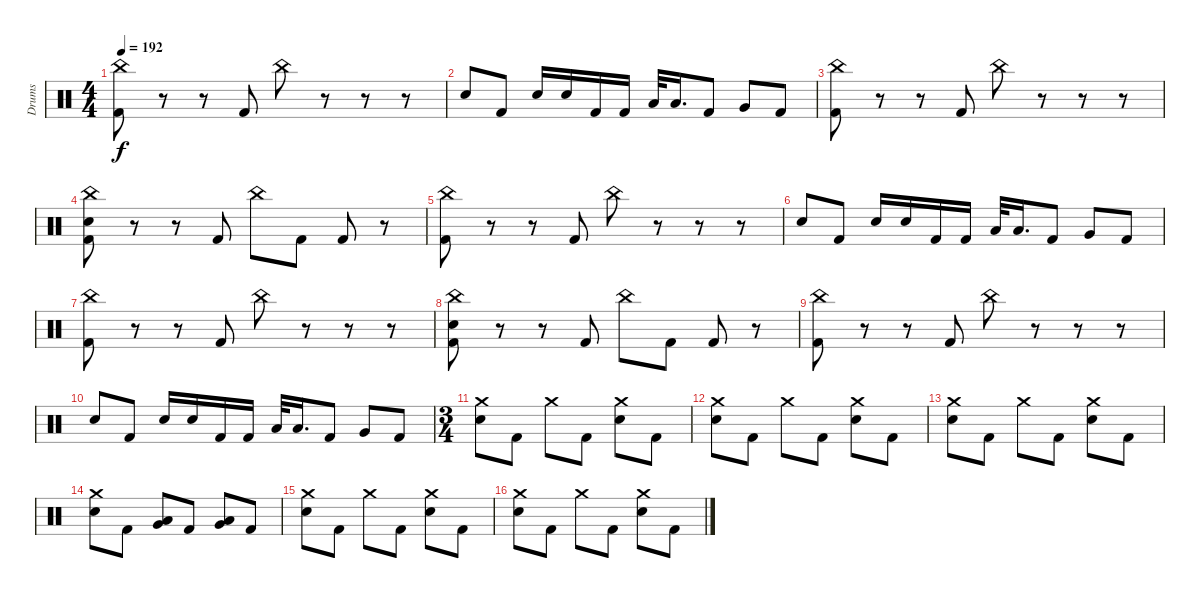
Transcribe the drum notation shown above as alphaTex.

\track ("Drums" "Drums") {instrument percussion}
\staff {score}
\articulation defaults
\ts (4 4)
\tempo 192
\clef neutral
\ks c
("China (hit)" "Kick (hit) 2").8{dy f} r.8 r.8 "Kick (hit) 2".8 "China (hit)".8 r.8 r.8 r.8 |
"Electric Snare (hit)".8 "Kick (hit) 2".8 "Electric Snare (hit)".16 "Electric Snare (hit)".16 "Kick (hit) 2".16 "Kick (hit) 2".16 "Low Tom (hit)".32 "Low Tom (hit)".16{d} "Kick (hit) 2".8 "Very Low Tom (hit)".8 "Kick (hit) 2".8 |
("China (hit)" "Kick (hit) 2").8 r.8 r.8 "Kick (hit) 2".8 "China (hit)".8 r.8 r.8 r.8 |
("China (hit)" "Electric Snare (hit)" "Kick (hit) 2").8 r.8 r.8 "Kick (hit) 2".8 "China (hit)".8 "Kick (hit) 2".8 "Kick (hit) 2".8 r.8 |
("China (hit)" "Kick (hit) 2").8 r.8 r.8 "Kick (hit) 2".8 "China (hit)".8 r.8 r.8 r.8 |
"Electric Snare (hit)".8 "Kick (hit) 2".8 "Electric Snare (hit)".16 "Electric Snare (hit)".16 "Kick (hit) 2".16 "Kick (hit) 2".16 "Low Tom (hit)".32 "Low Tom (hit)".16{d} "Kick (hit) 2".8 "Very Low Tom (hit)".8 "Kick (hit) 2".8 |
("China (hit)" "Kick (hit) 2").8 r.8 r.8 "Kick (hit) 2".8 "China (hit)".8 r.8 r.8 r.8 |
("China (hit)" "Electric Snare (hit)" "Kick (hit) 2").8 r.8 r.8 "Kick (hit) 2".8 "China (hit)".8 "Kick (hit) 2".8 "Kick (hit) 2".8 r.8 |
("China (hit)" "Kick (hit) 2").8 r.8 r.8 "Kick (hit) 2".8 "China (hit)".8 r.8 r.8 r.8 |
"Electric Snare (hit)".8 "Kick (hit) 2".8 "Electric Snare (hit)".16 "Electric Snare (hit)".16 "Kick (hit) 2".16 "Kick (hit) 2".16 "Low Tom (hit)".32 "Low Tom (hit)".16{d} "Kick (hit) 2".8 "Very Low Tom (hit)".8 "Kick (hit) 2".8 |
\ts (3 4)
("Crash medium (hit)" "Electric Snare (hit)").8 "Kick (hit) 2".8 "Crash medium (hit)".8 "Kick (hit) 2".8 ("Crash medium (hit)" "Electric Snare (hit)").8 "Kick (hit) 2".8 |
("Crash medium (hit)" "Electric Snare (hit)").8 "Kick (hit) 2".8 "Crash medium (hit)".8 "Kick (hit) 2".8 ("Crash medium (hit)" "Electric Snare (hit)").8 "Kick (hit) 2".8 |
("Crash medium (hit)" "Electric Snare (hit)").8 "Kick (hit) 2".8 "Crash medium (hit)".8 "Kick (hit) 2".8 ("Crash medium (hit)" "Electric Snare (hit)").8 "Kick (hit) 2".8 |
("Crash medium (hit)" "Electric Snare (hit)").8 "Kick (hit) 2".8 ("Very Low Tom (hit)" "Low Tom (hit)").8 "Kick (hit) 2".8 ("Low Floor Tom (hit)" "Very Low Tom (hit)").8 "Kick (hit) 2".8 |
("Crash medium (hit)" "Electric Snare (hit)").8 "Kick (hit) 2".8 "Crash medium (hit)".8 "Kick (hit) 2".8 ("Crash medium (hit)" "Electric Snare (hit)").8 "Kick (hit) 2".8 |
("Crash medium (hit)" "Electric Snare (hit)").8 "Kick (hit) 2".8 "Crash medium (hit)".8 "Kick (hit) 2".8 ("Crash medium (hit)" "Electric Snare (hit)").8 "Kick (hit) 2".8
